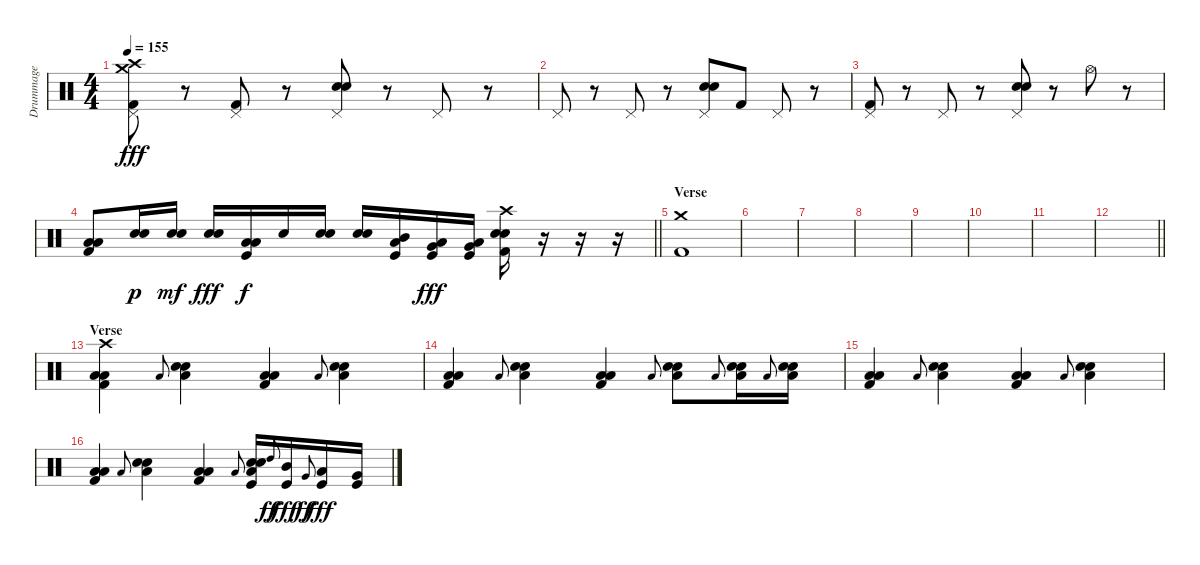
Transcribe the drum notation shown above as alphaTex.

\track ("Drummage" "Drummage") {instrument percussion}
\staff {score}
\articulation defaults
\ts (4 4)
\tempo 155
\clef neutral
\ks c
("Crash medium (hit)" "Crash high (hit)" "Pedal Hi-Hat (hit)" "Kick (hit) 2").8{dy fff} r.8 ("Pedal Hi-Hat (hit)" "Kick (hit) 2").8 r.8 ("Pedal Hi-Hat (hit)" "Snare (hit) 2" "Electric Snare (hit)").8 r.8 "Pedal Hi-Hat (hit)".8 r.8 |
"Pedal Hi-Hat (hit)".8 r.8 "Pedal Hi-Hat (hit)".8 r.8 ("Pedal Hi-Hat (hit)" "Snare (hit) 2" "Electric Snare (hit)").8 "Kick (hit) 2".8 "Pedal Hi-Hat (hit)".8 r.8 |
("Pedal Hi-Hat (hit)" "Kick (hit) 2").8 r.8 "Pedal Hi-Hat (hit)".8 r.8 ("Pedal Hi-Hat (hit)" "Snare (hit) 2" "Electric Snare (hit)").8 r.8 "Hi-Hat (open)".8 r.8 |
\barLineRight lightlight
("Low Floor Tom (hit)" "Low Tom (hit)" "Kick (hit) 2").8 ("Snare (hit) 2" "Electric Snare (hit)").16{dy p} ("Snare (hit) 2" "Electric Snare (hit)").16{dy mf} ("Snare (hit) 2" "Electric Snare (hit)").16{dy fff} ("Low Floor Tom (hit)" "Low Tom (hit)" "Kick (hit)").16{dy f} "Electric Snare (hit)".16 ("Snare (hit) 2" "Electric Snare (hit)").16 ("Snare (hit) 2" "Electric Snare (hit)").16 ("Mid Tom (hit)" "Low Tom (hit)" "Kick (hit)").16 ("Low Tom (hit)" "Very Low Tom (hit)" "Kick (hit)").16{dy fff} ("Very Low Tom (hit)" "Low Floor Tom (hit)" "Kick (hit)").16 ("Crash high (hit)" "Snare (hit) 2" "Electric Snare (hit)" "Kick (hit) 2").16 r.16 r.16 r.16 |
\section ("" "Verse ")
("Crash medium (hit)" "Kick (hit) 2").1 |
|
|
|
|
|
|
\barLineRight lightlight
|
\section ("" "Verse")
("Crash high (hit)" "Low Tom (hit)" "Low Floor Tom (hit)" "Kick (hit) 2").4 "Low Floor Tom (hit)".8{gr onbeat} ("Snare (hit) 2" "Electric Snare (hit)" "Low Tom (hit)").4 ("Low Tom (hit)" "Low Floor Tom (hit)" "Kick (hit) 2").4 "Low Floor Tom (hit)".8{gr onbeat} ("Snare (hit) 2" "Electric Snare (hit)" "Low Tom (hit)").4 |
("Low Tom (hit)" "Low Floor Tom (hit)" "Kick (hit) 2").4 "Low Floor Tom (hit)".8{gr onbeat} ("Snare (hit) 2" "Electric Snare (hit)" "Low Tom (hit)").4 ("Low Tom (hit)" "Low Floor Tom (hit)" "Kick (hit) 2").4 "Low Floor Tom (hit)".8{gr onbeat} ("Snare (hit) 2" "Electric Snare (hit)" "Low Tom (hit)").8 "Low Floor Tom (hit)".8{gr onbeat} ("Snare (hit) 2" "Electric Snare (hit)" "Low Tom (hit)").16 "Low Floor Tom (hit)".8{gr onbeat} ("Snare (hit) 2" "Electric Snare (hit)" "Low Tom (hit)").16 |
("Low Tom (hit)" "Low Floor Tom (hit)" "Kick (hit) 2").4 "Low Floor Tom (hit)".8{gr onbeat} ("Snare (hit) 2" "Electric Snare (hit)" "Low Tom (hit)").4 ("Low Tom (hit)" "Low Floor Tom (hit)" "Kick (hit) 2").4 "Low Floor Tom (hit)".8{gr onbeat} ("Snare (hit) 2" "Electric Snare (hit)" "Low Tom (hit)").4 |
("Low Tom (hit)" "Low Floor Tom (hit)" "Kick (hit) 2").4 "Low Floor Tom (hit)".8{gr onbeat} ("Snare (hit) 2" "Electric Snare (hit)" "Low Tom (hit)").4 ("Low Tom (hit)" "Low Floor Tom (hit)" "Kick (hit) 2").4 "Low Floor Tom (hit)".8{gr onbeat} ("Snare (hit) 2" "Electric Snare (hit)" "Low Tom (hit)" "Kick (hit)").16 "High Tom (hit)".8{gr onbeat dy ff} ("Mid Tom (hit)" "Kick (hit)").16{dy fff} "Very Low Tom (hit)".8{gr onbeat dy ff} ("Low Tom (hit)" "Kick (hit)").16{dy fff} ("Very Low Tom (hit)" "Kick (hit)").16
